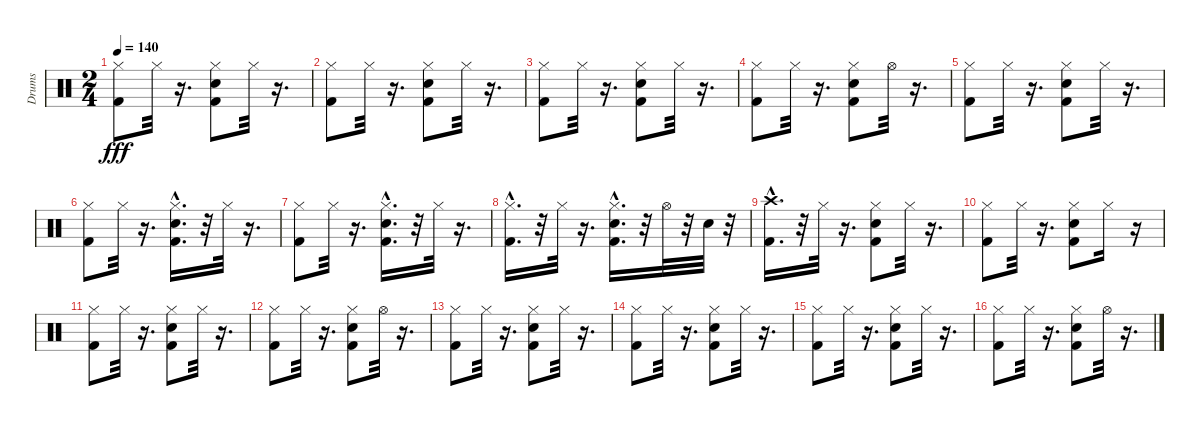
\track ("Drums" "Drums") {instrument percussion}
\staff {score}
\articulation defaults
\ts (2 4)
\tempo 140
\clef neutral
\ks c
("Kick (hit) 2" "Hi-Hat (closed)").8{dy fff} "Hi-Hat (closed)".32 r.16{d} ("Snare (hit) 2" "Kick (hit) 2" "Hi-Hat (closed)").8 "Hi-Hat (closed)".32 r.16{d} |
("Kick (hit) 2" "Hi-Hat (closed)").8 "Hi-Hat (closed)".32 r.16{d} ("Snare (hit) 2" "Kick (hit) 2" "Hi-Hat (closed)").8 "Hi-Hat (closed)".32 r.16{d} |
("Kick (hit) 2" "Hi-Hat (closed)").8 "Hi-Hat (closed)".32 r.16{d} ("Snare (hit) 2" "Kick (hit) 2" "Hi-Hat (closed)").8 "Hi-Hat (closed)".32 r.16{d} |
("Kick (hit) 2" "Hi-Hat (closed)").8 "Hi-Hat (closed)".32 r.16{d} ("Snare (hit) 2" "Kick (hit) 2" "Hi-Hat (closed)").8 "Hi-Hat (open)".32 r.16{d} |
("Kick (hit) 2" "Hi-Hat (closed)").8 "Hi-Hat (closed)".32 r.16{d} ("Snare (hit) 2" "Kick (hit) 2" "Hi-Hat (closed)").8 "Hi-Hat (closed)".32 r.16{d} |
("Kick (hit) 2" "Hi-Hat (closed)").8 "Hi-Hat (closed)".32 r.16{d} ("Snare (hit) 2"{hac} "Kick (hit) 2"{hac} "Hi-Hat (closed)").16{d} r.32 "Hi-Hat (closed)".32 r.16{d} |
("Kick (hit) 2" "Hi-Hat (closed)").8 "Hi-Hat (closed)".32 r.16{d} ("Snare (hit) 2"{hac} "Kick (hit) 2"{hac} "Hi-Hat (closed)").16{d} r.32 "Hi-Hat (closed)".32 r.16{d} |
("Kick (hit) 2"{hac} "Hi-Hat (closed)").16{d} r.32 "Hi-Hat (closed)".32 r.16{d} ("Snare (hit) 2"{hac} "Kick (hit) 2"{hac} "Hi-Hat (closed)").16{d} r.32 "Hi-Hat (open)".32 r.32 "Snare (hit) 2".32 r.32 |
("Kick (hit) 2"{hac} "Crash high (hit)").16{d} r.32 "Hi-Hat (closed)".32 r.16{d} ("Snare (hit) 2" "Hi-Hat (closed)" "Kick (hit) 2").8 "Hi-Hat (closed)".32 r.16{d} |
("Kick (hit) 2" "Hi-Hat (closed)").8 "Hi-Hat (closed)".32 r.16{d} ("Snare (hit) 2" "Kick (hit) 2" "Hi-Hat (closed)").8 "Hi-Hat (closed)".16 r.16 |
("Kick (hit) 2" "Hi-Hat (closed)").8 "Hi-Hat (closed)".32 r.16{d} ("Snare (hit) 2" "Kick (hit) 2" "Hi-Hat (closed)").8 "Hi-Hat (closed)".32 r.16{d} |
("Kick (hit) 2" "Hi-Hat (closed)").8 "Hi-Hat (closed)".32 r.16{d} ("Kick (hit) 2" "Snare (hit) 2" "Hi-Hat (closed)").8 "Hi-Hat (open)".32 r.16{d} |
("Kick (hit) 2" "Hi-Hat (closed)").8 "Hi-Hat (closed)".32 r.16{d} ("Hi-Hat (closed)" "Snare (hit) 2" "Kick (hit) 2").8 "Hi-Hat (closed)".32 r.16{d} |
("Kick (hit) 2" "Hi-Hat (closed)").8 "Hi-Hat (closed)".32 r.16{d} ("Snare (hit) 2" "Kick (hit) 2" "Hi-Hat (closed)").8 "Hi-Hat (closed)".32 r.16{d} |
("Kick (hit) 2" "Hi-Hat (closed)").8 "Hi-Hat (closed)".32 r.16{d} ("Snare (hit) 2" "Kick (hit) 2" "Hi-Hat (closed)").8 "Hi-Hat (closed)".32 r.16{d} |
("Kick (hit) 2" "Hi-Hat (closed)").8 "Hi-Hat (closed)".32 r.16{d} ("Snare (hit) 2" "Kick (hit) 2" "Hi-Hat (closed)").8 "Hi-Hat (open)".32 r.16{d}
